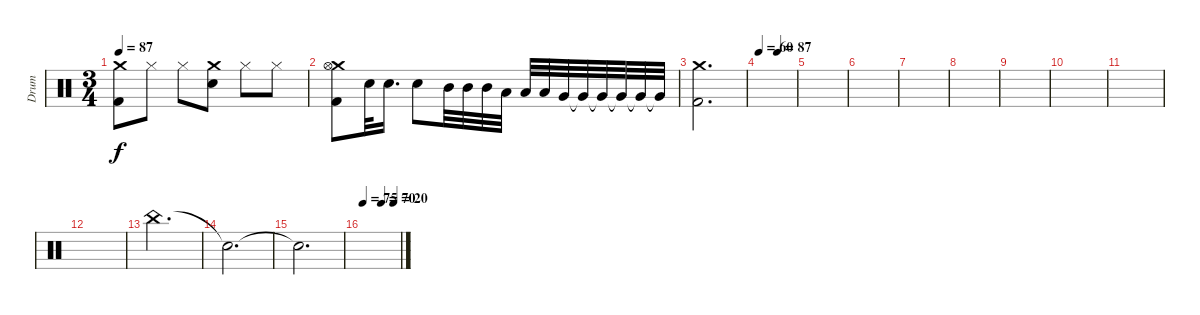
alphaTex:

\track ("Drum" "Drum") {instrument percussion}
\staff {score}
\articulation defaults
\ts (3 4)
\tempo 87
\clef neutral
\ks c
("Crash medium (hit)" "Kick (hit) 2").8{dy f} "Hi-Hat (closed)".8 "Hi-Hat (closed)".8 ("Crash medium (hit)" "Electric Snare (hit)").8 "Hi-Hat (closed)".8 "Hi-Hat (closed)".8 |
("Crash medium (hit)" "Hi-Hat (open)" "Kick (hit) 2").8 "Electric Snare (hit)".32 "Electric Snare (hit)".16{d} "Snare (hit) 2".8 "Mid Tom (hit)".32 "Mid Tom (hit)".32 "Mid Tom (hit)".32 "Low Tom (hit)".32 "Low Tom (hit)".32 "Low Tom (hit)".32 "Very Low Tom (hit)".32 "Very Low Tom (hit)"{t}.32 "Very Low Tom (hit)"{t}.32 "Very Low Tom (hit)"{t}.32 "Very Low Tom (hit)"{t}.32 "Very Low Tom (hit)"{t}.32 |
("Crash medium (hit)" "Kick (hit) 2").2{d} |
\tempo 60
\tempo (87 0.5)
|
|
|
|
|
|
|
|
|
"China (hit)".2{d} |
"Snare (hit)"{t}.2{d} |
"Snare (hit)"{t}.2{d} |
\tempo 75
\tempo (70 0.5)
\tempo (20 0.8333333333333334)
